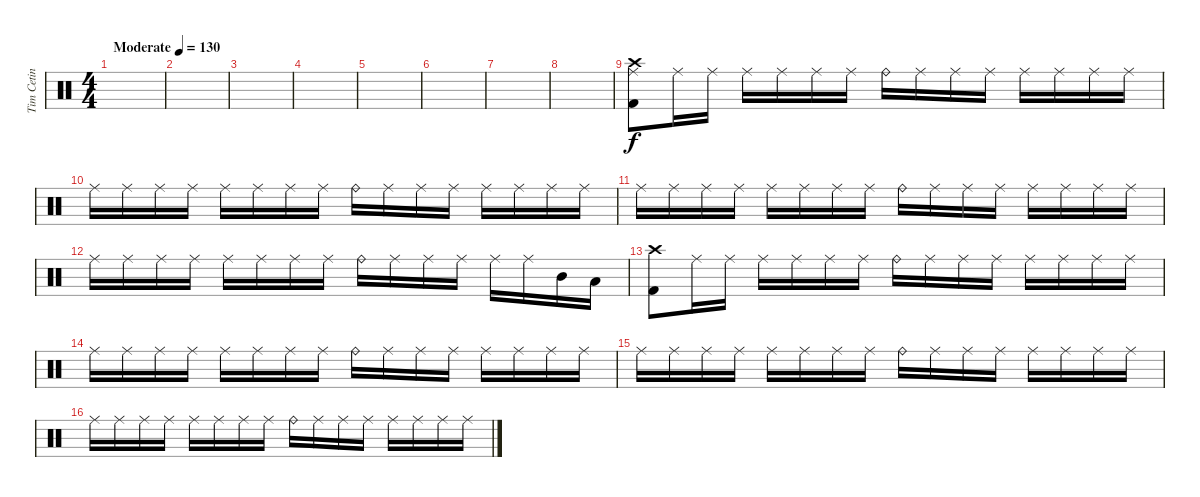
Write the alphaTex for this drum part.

\track ("Tim Cetin" "Tim Cetin") {instrument percussion}
\staff {score}
\articulation defaults
\ts (4 4)
\tempo (130 "Moderate")
\clef neutral
\ks c
|
|
|
|
|
|
|
|
("Crash high (hit)" "Ride (middle)" "Kick (hit) 2").8 "Ride (middle)".16 "Ride (middle)".16 "Ride (middle)".16 "Ride (middle)".16 "Ride (middle)".16 "Ride (middle)".16 "Ride (bell)".16 "Ride (middle)".16 "Ride (middle)".16 "Ride (middle)".16 "Ride (middle)".16 "Ride (middle)".16 "Ride (middle)".16 "Ride (middle)".16 |
"Ride (middle)".16 "Ride (middle)".16 "Ride (middle)".16 "Ride (middle)".16 "Ride (middle)".16 "Ride (middle)".16 "Ride (middle)".16 "Ride (middle)".16 "Ride (bell)".16 "Ride (middle)".16 "Ride (middle)".16 "Ride (middle)".16 "Ride (middle)".16 "Ride (middle)".16 "Ride (middle)".16 "Ride (middle)".16 |
"Ride (middle)".16 "Ride (middle)".16 "Ride (middle)".16 "Ride (middle)".16 "Ride (middle)".16 "Ride (middle)".16 "Ride (middle)".16 "Ride (middle)".16 "Ride (bell)".16 "Ride (middle)".16 "Ride (middle)".16 "Ride (middle)".16 "Ride (middle)".16 "Ride (middle)".16 "Ride (middle)".16 "Ride (middle)".16 |
"Ride (middle)".16 "Ride (middle)".16 "Ride (middle)".16 "Ride (middle)".16 "Ride (middle)".16 "Ride (middle)".16 "Ride (middle)".16 "Ride (middle)".16 "Ride (bell)".16 "Ride (middle)".16 "Ride (middle)".16 "Ride (middle)".16 "Ride (middle)".16 "Ride (middle)".16 "Mid Tom (hit)".16 "Low Tom (hit)".16 |
("Crash high (hit)" "Kick (hit) 2").8 "Ride (middle)".16 "Ride (middle)".16 "Ride (middle)".16 "Ride (middle)".16 "Ride (middle)".16 "Ride (middle)".16 "Ride (bell)".16 "Ride (middle)".16 "Ride (middle)".16 "Ride (middle)".16 "Ride (middle)".16 "Ride (middle)".16 "Ride (middle)".16 "Ride (middle)".16 |
"Ride (middle)".16 "Ride (middle)".16 "Ride (middle)".16 "Ride (middle)".16 "Ride (middle)".16 "Ride (middle)".16 "Ride (middle)".16 "Ride (middle)".16 "Ride (bell)".16 "Ride (middle)".16 "Ride (middle)".16 "Ride (middle)".16 "Ride (middle)".16 "Ride (middle)".16 "Ride (middle)".16 "Ride (middle)".16 |
"Ride (middle)".16 "Ride (middle)".16 "Ride (middle)".16 "Ride (middle)".16 "Ride (middle)".16 "Ride (middle)".16 "Ride (middle)".16 "Ride (middle)".16 "Ride (bell)".16 "Ride (middle)".16 "Ride (middle)".16 "Ride (middle)".16 "Ride (middle)".16 "Ride (middle)".16 "Ride (middle)".16 "Ride (middle)".16 |
"Ride (middle)".16 "Ride (middle)".16 "Ride (middle)".16 "Ride (middle)".16 "Ride (middle)".16 "Ride (middle)".16 "Ride (middle)".16 "Ride (middle)".16 "Ride (bell)".16 "Ride (middle)".16 "Ride (middle)".16 "Ride (middle)".16 "Ride (middle)".16 "Ride (middle)".16 "Ride (middle)".16 "Ride (middle)".16
